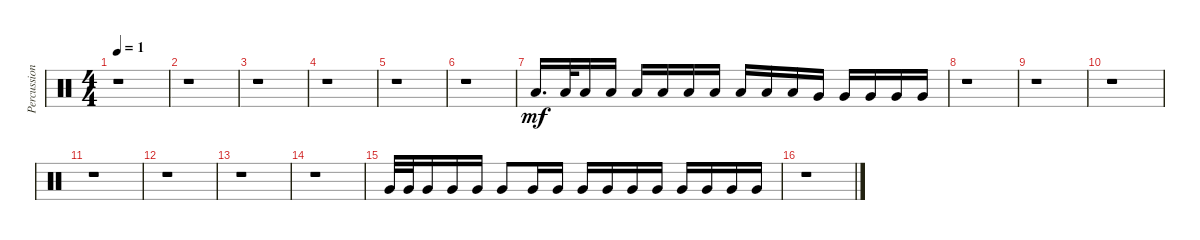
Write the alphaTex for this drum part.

\track ("Percussion 2" "Percussion") {instrument percussion}
\staff {score}
\articulation defaults
\ts (4 4)
\tempo 1
\clef neutral
\ks c
r.1{dy mf} |
r.1 |
r.1 |
r.1 |
r.1 |
r.1 |
"Low Tom (hit)".16{d} "Low Tom (hit)".32 "Low Tom (hit)".16 "Low Tom (hit)".16 "Low Tom (hit)".16 "Low Tom (hit)".16 "Low Tom (hit)".16 "Low Tom (hit)".16 "Low Tom (hit)".16 "Low Tom (hit)".16 "Low Tom (hit)".16 "Very Low Tom (hit)".16 "Very Low Tom (hit)".16 "Very Low Tom (hit)".16 "Very Low Tom (hit)".16 "Very Low Tom (hit)".16 |
r.1 |
r.1 |
r.1 |
r.1 |
r.1 |
r.1 |
r.1 |
"Very Low Tom (hit)".32 "Very Low Tom (hit)".32 "Very Low Tom (hit)".16 "Very Low Tom (hit)".16 "Very Low Tom (hit)".16 "Very Low Tom (hit)".8 "Very Low Tom (hit)".16 "Very Low Tom (hit)".16 "Very Low Tom (hit)".16 "Very Low Tom (hit)".16 "Very Low Tom (hit)".16 "Very Low Tom (hit)".16 "Very Low Tom (hit)".16 "Very Low Tom (hit)".16 "Very Low Tom (hit)".16 "Very Low Tom (hit)".16 |
r.1
